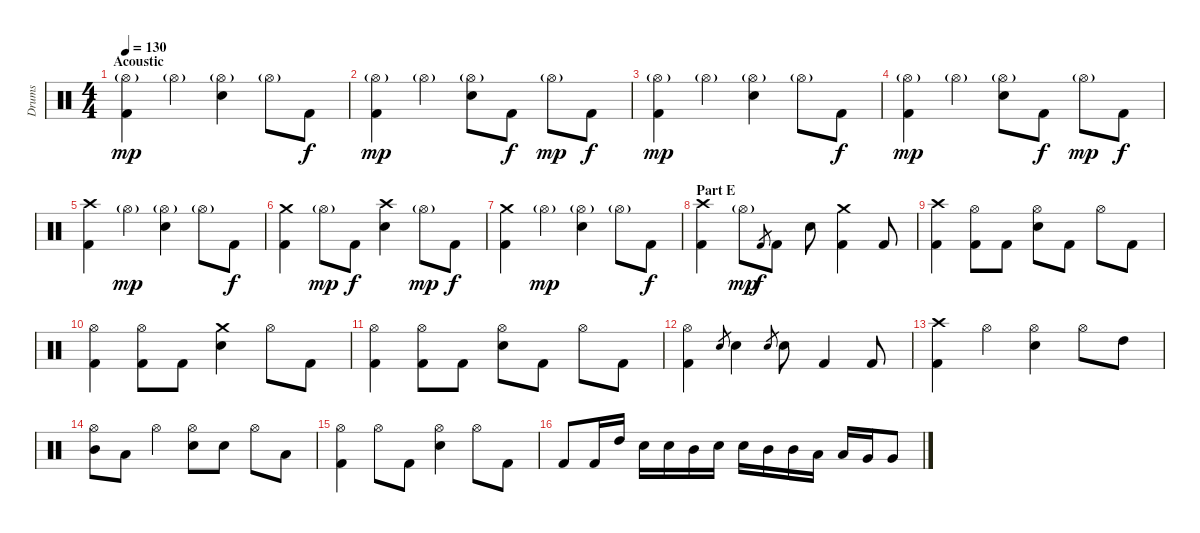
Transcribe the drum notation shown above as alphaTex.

\track ("Drums" "Drums") {instrument percussion}
\staff {score}
\articulation defaults
\ts (4 4)
\section ("" "Acoustic")
\tempo 130
\clef neutral
\ks c
("Hi-Hat (open)"{g} "Kick (hit) 2").4{dy mp} "Hi-Hat (open)"{g}.4 ("Hi-Hat (open)"{g} "Electric Snare (hit)").4 "Hi-Hat (open)"{g}.8 "Kick (hit) 2".8{dy f} |
("Hi-Hat (open)"{g} "Kick (hit) 2").4{dy mp} "Hi-Hat (open)"{g}.4 ("Hi-Hat (open)"{g} "Electric Snare (hit)").8 "Kick (hit) 2".8{dy f} "Hi-Hat (open)"{g}.8{dy mp} "Kick (hit) 2".8{dy f} |
("Hi-Hat (open)"{g} "Kick (hit) 2").4{dy mp} "Hi-Hat (open)"{g}.4 ("Hi-Hat (open)"{g} "Electric Snare (hit)").4 "Hi-Hat (open)"{g}.8 "Kick (hit) 2".8{dy f} |
("Hi-Hat (open)"{g} "Kick (hit) 2").4{dy mp} "Hi-Hat (open)"{g}.4 ("Hi-Hat (open)"{g} "Electric Snare (hit)").8 "Kick (hit) 2".8{dy f} "Hi-Hat (open)"{g}.8{dy mp} "Kick (hit) 2".8{dy f} |
("Crash high (hit)" "Kick (hit) 2").4 "Hi-Hat (open)"{g}.4{dy mp} ("Hi-Hat (open)"{g} "Electric Snare (hit)").4 "Hi-Hat (open)"{g}.8 "Kick (hit) 2".8{dy f} |
("Crash medium (hit)" "Kick (hit) 2").4 "Hi-Hat (open)"{g}.8{dy mp} "Kick (hit) 2".8{dy f} ("Crash high (hit)" "Electric Snare (hit)").4 "Hi-Hat (open)"{g}.8{dy mp} "Kick (hit) 2".8{dy f} |
("Crash medium (hit)" "Kick (hit) 2").4 "Hi-Hat (open)"{g}.4{dy mp} ("Hi-Hat (open)"{g} "Electric Snare (hit)").4 "Hi-Hat (open)"{g}.8 "Kick (hit) 2".8{dy f} |
\section ("" "Part E")
("Crash high (hit)" "Kick (hit) 2").4 "Hi-Hat (open)"{g}.8{dy mp} "Kick (hit) 2".8{gr dy f} "Kick (hit) 2".8 "Electric Snare (hit)".8 ("Crash medium (hit)" "Kick (hit) 2").4 "Kick (hit) 2".8 |
("Crash high (hit)" "Kick (hit) 2").4 ("Hi-Hat (open)" "Kick (hit) 2").8 "Kick (hit) 2".8 ("Hi-Hat (open)" "Electric Snare (hit)").8 "Kick (hit) 2".8 "Hi-Hat (open)".8 "Kick (hit) 2".8 |
("Hi-Hat (open)" "Kick (hit) 2").4 ("Hi-Hat (open)" "Kick (hit) 2").8 "Kick (hit) 2".8 ("Crash medium (hit)" "Electric Snare (hit)").4 "Hi-Hat (open)".8 "Kick (hit) 2".8 |
("Hi-Hat (open)" "Kick (hit) 2").4 ("Hi-Hat (open)" "Kick (hit) 2").8 "Kick (hit) 2".8 ("Hi-Hat (open)" "Electric Snare (hit)").8 "Kick (hit) 2".8 "Hi-Hat (open)".8 "Kick (hit) 2".8 |
("Hi-Hat (open)" "Kick (hit) 2").4 "Electric Snare (hit)".8{gr} "Electric Snare (hit)".4 "Electric Snare (hit)".8{gr} "Electric Snare (hit)".8 "Kick (hit) 2".4 "Kick (hit) 2".8 |
("Crash high (hit)" "Kick (hit) 2").4 "Hi-Hat (open)".4 ("Hi-Hat (open)" "Electric Snare (hit)").4 "Hi-Hat (open)".8 "High Tom (hit)".8 |
("Hi-Hat (open)" "Mid Tom (hit)").8 "Low Tom (hit)".8 "Hi-Hat (open)".4 ("Hi-Hat (open)" "Electric Snare (hit)").8 "Electric Snare (hit)".8 "Hi-Hat (open)".8 "Low Tom (hit)".8 |
("Hi-Hat (open)" "Kick (hit) 2").4 "Hi-Hat (open)".8 "Kick (hit) 2".8 ("Hi-Hat (open)" "Electric Snare (hit)").4 "Hi-Hat (open)".8 "Kick (hit) 2".8 |
"Kick (hit) 2".8 "Kick (hit) 2".16 "High Tom (hit)".16 "Electric Snare (hit)".16 "Electric Snare (hit)".16 "Mid Tom (hit)".16 "Electric Snare (hit)".16 "Electric Snare (hit)".16 "Mid Tom (hit)".16 "Mid Tom (hit)".16 "Low Tom (hit)".16 "Low Tom (hit)".16 "Very Low Tom (hit)".16 "Very Low Tom (hit)".8
